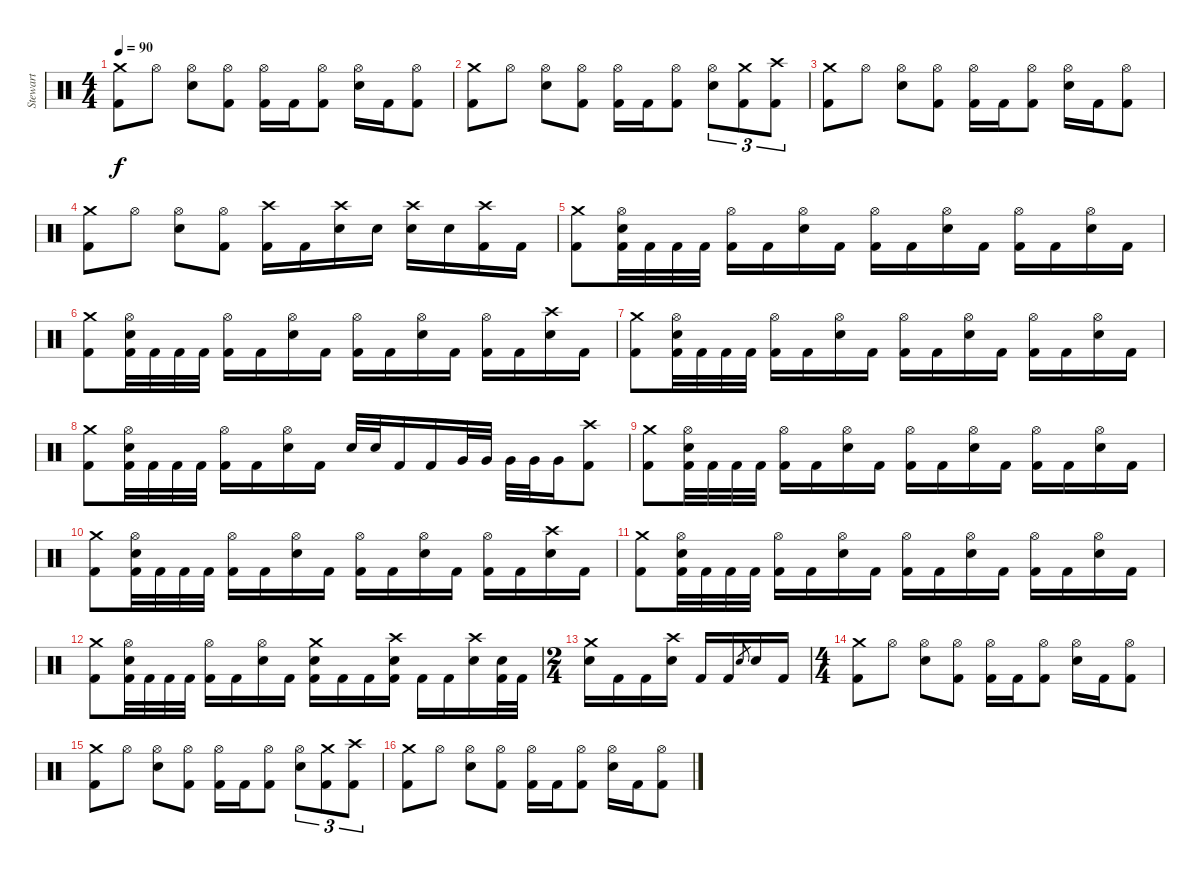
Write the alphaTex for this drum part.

\track ("Stewart" "Stewart") {instrument percussion}
\staff {score}
\articulation defaults
\ts (4 4)
\tempo 90
\clef neutral
\ks c
("Crash medium (hit)" "Kick (hit) 2").8{dy f} "Hi-Hat (open)".8 ("Hi-Hat (open)" "Electric Snare (hit)").8 ("Hi-Hat (open)" "Kick (hit) 2").8 ("Hi-Hat (open)" "Kick (hit) 2").16 "Kick (hit) 2".16 ("Hi-Hat (open)" "Kick (hit) 2").8 ("Hi-Hat (open)" "Electric Snare (hit)").16 "Kick (hit) 2".16 ("Hi-Hat (open)" "Kick (hit) 2").8 |
("Crash medium (hit)" "Kick (hit) 2").8 "Hi-Hat (open)".8 ("Hi-Hat (open)" "Electric Snare (hit)").8 ("Hi-Hat (open)" "Kick (hit) 2").8 ("Hi-Hat (open)" "Kick (hit) 2").16 "Kick (hit) 2".16 ("Hi-Hat (open)" "Kick (hit) 2").8 ("Hi-Hat (open)" "Electric Snare (hit)").8{tu (3 2)} ("Crash medium (hit)" "Kick (hit) 2").8{tu (3 2)} ("Crash high (hit)" "Kick (hit) 2").8{tu (3 2)} |
("Crash medium (hit)" "Kick (hit) 2").8 "Hi-Hat (open)".8 ("Hi-Hat (open)" "Electric Snare (hit)").8 ("Hi-Hat (open)" "Kick (hit) 2").8 ("Hi-Hat (open)" "Kick (hit) 2").16 "Kick (hit) 2".16 ("Hi-Hat (open)" "Kick (hit) 2").8 ("Hi-Hat (open)" "Electric Snare (hit)").16 "Kick (hit) 2".16 ("Hi-Hat (open)" "Kick (hit) 2").8 |
("Crash medium (hit)" "Kick (hit) 2").8 "Hi-Hat (open)".8 ("Hi-Hat (open)" "Electric Snare (hit)").8 ("Hi-Hat (open)" "Kick (hit) 2").8 ("Crash high (hit)" "Kick (hit) 2").16 "Kick (hit) 2".16 ("Crash high (hit)" "Electric Snare (hit)").16 "Electric Snare (hit)".16 ("Crash high (hit)" "Electric Snare (hit)").16 "Electric Snare (hit)".16 ("Crash high (hit)" "Kick (hit) 2").16 "Kick (hit) 2".16 |
("Crash medium (hit)" "Kick (hit) 2").8 ("Hi-Hat (open)" "Electric Snare (hit)" "Kick (hit) 2").32 "Kick (hit) 2".32 "Kick (hit) 2".32 "Kick (hit) 2".32 ("Hi-Hat (open)" "Kick (hit) 2").16 "Kick (hit) 2".16 ("Hi-Hat (open)" "Electric Snare (hit)").16 "Kick (hit) 2".16 ("Hi-Hat (open)" "Kick (hit) 2").16 "Kick (hit) 2".16 ("Hi-Hat (open)" "Electric Snare (hit)").16 "Kick (hit) 2".16 ("Hi-Hat (open)" "Kick (hit) 2").16 "Kick (hit) 2".16 ("Hi-Hat (open)" "Electric Snare (hit)").16 "Kick (hit) 2".16 |
("Crash medium (hit)" "Kick (hit) 2").8 ("Hi-Hat (open)" "Electric Snare (hit)" "Kick (hit) 2").32 "Kick (hit) 2".32 "Kick (hit) 2".32 "Kick (hit) 2".32 ("Hi-Hat (open)" "Kick (hit) 2").16 "Kick (hit) 2".16 ("Hi-Hat (open)" "Electric Snare (hit)").16 "Kick (hit) 2".16 ("Hi-Hat (open)" "Kick (hit) 2").16 "Kick (hit) 2".16 ("Hi-Hat (open)" "Electric Snare (hit)").16 "Kick (hit) 2".16 ("Hi-Hat (open)" "Kick (hit) 2").16 "Kick (hit) 2".16 ("Crash high (hit)" "Electric Snare (hit)").16 "Kick (hit) 2".16 |
("Crash medium (hit)" "Kick (hit) 2").8 ("Hi-Hat (open)" "Electric Snare (hit)" "Kick (hit) 2").32 "Kick (hit) 2".32 "Kick (hit) 2".32 "Kick (hit) 2".32 ("Hi-Hat (open)" "Kick (hit) 2").16 "Kick (hit) 2".16 ("Hi-Hat (open)" "Electric Snare (hit)").16 "Kick (hit) 2".16 ("Hi-Hat (open)" "Kick (hit) 2").16 "Kick (hit) 2".16 ("Hi-Hat (open)" "Electric Snare (hit)").16 "Kick (hit) 2".16 ("Hi-Hat (open)" "Kick (hit) 2").16 "Kick (hit) 2".16 ("Hi-Hat (open)" "Electric Snare (hit)").16 "Kick (hit) 2".16 |
("Crash medium (hit)" "Kick (hit) 2").8 ("Hi-Hat (open)" "Electric Snare (hit)" "Kick (hit) 2").32 "Kick (hit) 2".32 "Kick (hit) 2".32 "Kick (hit) 2".32 ("Hi-Hat (open)" "Kick (hit) 2").16 "Kick (hit) 2".16 ("Hi-Hat (open)" "Electric Snare (hit)").16 "Kick (hit) 2".16 "Electric Snare (hit)".32 "Electric Snare (hit)".32 "Kick (hit) 2".16 "Kick (hit) 2".16 "Very Low Tom (hit)".32 "Very Low Tom (hit)".32 "Very Low Tom (hit)".32 "Very Low Tom (hit)".32 "Very Low Tom (hit)".16 ("Crash high (hit)" "Kick (hit) 2").8 |
("Crash medium (hit)" "Kick (hit) 2").8 ("Hi-Hat (open)" "Electric Snare (hit)" "Kick (hit) 2").32 "Kick (hit) 2".32 "Kick (hit) 2".32 "Kick (hit) 2".32 ("Hi-Hat (open)" "Kick (hit) 2").16 "Kick (hit) 2".16 ("Hi-Hat (open)" "Electric Snare (hit)").16 "Kick (hit) 2".16 ("Hi-Hat (open)" "Kick (hit) 2").16 "Kick (hit) 2".16 ("Hi-Hat (open)" "Electric Snare (hit)").16 "Kick (hit) 2".16 ("Hi-Hat (open)" "Kick (hit) 2").16 "Kick (hit) 2".16 ("Hi-Hat (open)" "Electric Snare (hit)").16 "Kick (hit) 2".16 |
("Crash medium (hit)" "Kick (hit) 2").8 ("Hi-Hat (open)" "Electric Snare (hit)" "Kick (hit) 2").32 "Kick (hit) 2".32 "Kick (hit) 2".32 "Kick (hit) 2".32 ("Hi-Hat (open)" "Kick (hit) 2").16 "Kick (hit) 2".16 ("Hi-Hat (open)" "Electric Snare (hit)").16 "Kick (hit) 2".16 ("Hi-Hat (open)" "Kick (hit) 2").16 "Kick (hit) 2".16 ("Hi-Hat (open)" "Electric Snare (hit)").16 "Kick (hit) 2".16 ("Hi-Hat (open)" "Kick (hit) 2").16 "Kick (hit) 2".16 ("Crash high (hit)" "Electric Snare (hit)").16 "Kick (hit) 2".16 |
("Crash medium (hit)" "Kick (hit) 2").8 ("Hi-Hat (open)" "Electric Snare (hit)" "Kick (hit) 2").32 "Kick (hit) 2".32 "Kick (hit) 2".32 "Kick (hit) 2".32 ("Hi-Hat (open)" "Kick (hit) 2").16 "Kick (hit) 2".16 ("Hi-Hat (open)" "Electric Snare (hit)").16 "Kick (hit) 2".16 ("Hi-Hat (open)" "Kick (hit) 2").16 "Kick (hit) 2".16 ("Hi-Hat (open)" "Electric Snare (hit)").16 "Kick (hit) 2".16 ("Hi-Hat (open)" "Kick (hit) 2").16 "Kick (hit) 2".16 ("Hi-Hat (open)" "Electric Snare (hit)").16 "Kick (hit) 2".16 |
("Crash medium (hit)" "Kick (hit) 2").8 ("Hi-Hat (open)" "Electric Snare (hit)" "Kick (hit) 2").32 "Kick (hit) 2".32 "Kick (hit) 2".32 "Kick (hit) 2".32 ("Hi-Hat (open)" "Kick (hit) 2").16 "Kick (hit) 2".16 ("Hi-Hat (open)" "Electric Snare (hit)").16 "Kick (hit) 2".16 ("Crash medium (hit)" "Electric Snare (hit)" "Kick (hit) 2").16 "Kick (hit) 2".16 "Kick (hit) 2".16 ("Crash high (hit)" "Electric Snare (hit)" "Kick (hit) 2").16 "Kick (hit) 2".16 "Kick (hit) 2".16 ("Crash high (hit)" "Electric Snare (hit)").16 ("Electric Snare (hit)" "Kick (hit) 2").32 "Kick (hit) 2".32 |
\ts (2 4)
("Crash medium (hit)" "Electric Snare (hit)").16 "Kick (hit) 2".16 "Kick (hit) 2".16 ("Crash high (hit)" "Electric Snare (hit)").16 "Kick (hit) 2".16 "Kick (hit) 2".16 "Electric Snare (hit)".8{gr} "Electric Snare (hit)".16 "Kick (hit) 2".16 |
\ts (4 4)
("Crash medium (hit)" "Kick (hit) 2").8 "Hi-Hat (open)".8 ("Hi-Hat (open)" "Electric Snare (hit)").8 ("Hi-Hat (open)" "Kick (hit) 2").8 ("Hi-Hat (open)" "Kick (hit) 2").16 "Kick (hit) 2".16 ("Hi-Hat (open)" "Kick (hit) 2").8 ("Hi-Hat (open)" "Electric Snare (hit)").16 "Kick (hit) 2".16 ("Hi-Hat (open)" "Kick (hit) 2").8 |
("Crash medium (hit)" "Kick (hit) 2").8 "Hi-Hat (open)".8 ("Hi-Hat (open)" "Electric Snare (hit)").8 ("Hi-Hat (open)" "Kick (hit) 2").8 ("Hi-Hat (open)" "Kick (hit) 2").16 "Kick (hit) 2".16 ("Hi-Hat (open)" "Kick (hit) 2").8 ("Hi-Hat (open)" "Electric Snare (hit)").8{tu (3 2)} ("Crash medium (hit)" "Kick (hit) 2").8{tu (3 2)} ("Crash high (hit)" "Kick (hit) 2").8{tu (3 2)} |
("Crash medium (hit)" "Kick (hit) 2").8 "Hi-Hat (open)".8 ("Hi-Hat (open)" "Electric Snare (hit)").8 ("Hi-Hat (open)" "Kick (hit) 2").8 ("Hi-Hat (open)" "Kick (hit) 2").16 "Kick (hit) 2".16 ("Hi-Hat (open)" "Kick (hit) 2").8 ("Hi-Hat (open)" "Electric Snare (hit)").16 "Kick (hit) 2".16 ("Hi-Hat (open)" "Kick (hit) 2").8
